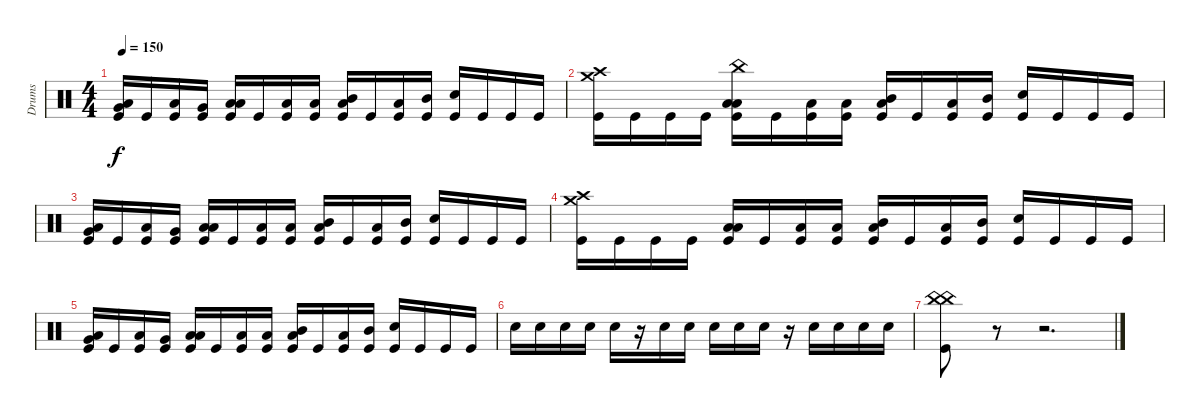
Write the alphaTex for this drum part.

\track ("Drums" "Drums") {instrument percussion}
\staff {score}
\articulation defaults
\ts (4 4)
\tempo 150
\clef neutral
\ks c
("Low Floor Tom (hit)" "Very Low Tom (hit)" "Kick (hit)").16{dy f} "Kick (hit)".16 ("Low Floor Tom (hit)" "Kick (hit)").16 ("Very Low Tom (hit)" "Kick (hit)").16 ("Low Floor Tom (hit)" "Low Tom (hit)" "Kick (hit)").16 "Kick (hit)".16 ("Low Floor Tom (hit)" "Kick (hit)").16 ("Low Tom (hit)" "Kick (hit)").16 ("Low Tom (hit)" "Mid Tom (hit)" "Kick (hit)").16 "Kick (hit)".16 ("Low Tom (hit)" "Kick (hit)").16 ("Mid Tom (hit)" "Kick (hit)").16 ("Snare (hit) 2" "Kick (hit)").16 "Kick (hit)".16 "Kick (hit)".16 "Kick (hit)".16 |
("Crash medium (hit)" "Crash high (hit)" "Kick (hit)").16 "Kick (hit)".16 "Kick (hit)".16 "Kick (hit)".16 ("China (hit)" "Low Floor Tom (hit)" "Low Tom (hit)" "Kick (hit)").16 "Kick (hit)".16 ("Low Floor Tom (hit)" "Kick (hit)").16 ("Low Tom (hit)" "Kick (hit)").16 ("Low Tom (hit)" "Mid Tom (hit)" "Kick (hit)").16 "Kick (hit)".16 ("Low Tom (hit)" "Kick (hit)").16 ("Mid Tom (hit)" "Kick (hit)").16 ("Snare (hit) 2" "Kick (hit)").16 "Kick (hit)".16 "Kick (hit)".16 "Kick (hit)".16 |
("Low Floor Tom (hit)" "Very Low Tom (hit)" "Kick (hit)").16 "Kick (hit)".16 ("Low Floor Tom (hit)" "Kick (hit)").16 ("Very Low Tom (hit)" "Kick (hit)").16 ("Low Floor Tom (hit)" "Low Tom (hit)" "Kick (hit)").16 "Kick (hit)".16 ("Low Floor Tom (hit)" "Kick (hit)").16 ("Low Tom (hit)" "Kick (hit)").16 ("Low Tom (hit)" "Mid Tom (hit)" "Kick (hit)").16 "Kick (hit)".16 ("Low Tom (hit)" "Kick (hit)").16 ("Mid Tom (hit)" "Kick (hit)").16 ("Snare (hit) 2" "Kick (hit)").16 "Kick (hit)".16 "Kick (hit)".16 "Kick (hit)".16 |
("Crash medium (hit)" "Crash high (hit)" "Kick (hit)").16 "Kick (hit)".16 "Kick (hit)".16 "Kick (hit)".16 ("Low Floor Tom (hit)" "Low Tom (hit)" "Kick (hit)").16 "Kick (hit)".16 ("Low Floor Tom (hit)" "Kick (hit)").16 ("Low Tom (hit)" "Kick (hit)").16 ("Low Tom (hit)" "Mid Tom (hit)" "Kick (hit)").16 "Kick (hit)".16 ("Low Tom (hit)" "Kick (hit)").16 ("Mid Tom (hit)" "Kick (hit)").16 ("Snare (hit) 2" "Kick (hit)").16 "Kick (hit)".16 "Kick (hit)".16 "Kick (hit)".16 |
("Low Floor Tom (hit)" "Very Low Tom (hit)" "Kick (hit)").16 "Kick (hit)".16 ("Low Floor Tom (hit)" "Kick (hit)").16 ("Very Low Tom (hit)" "Kick (hit)").16 ("Low Floor Tom (hit)" "Low Tom (hit)" "Kick (hit)").16 "Kick (hit)".16 ("Low Floor Tom (hit)" "Kick (hit)").16 ("Low Tom (hit)" "Kick (hit)").16 ("Low Tom (hit)" "Mid Tom (hit)" "Kick (hit)").16 "Kick (hit)".16 ("Low Tom (hit)" "Kick (hit)").16 ("Mid Tom (hit)" "Kick (hit)").16 ("Snare (hit) 2" "Kick (hit)").16 "Kick (hit)".16 "Kick (hit)".16 "Kick (hit)".16 |
"Snare (hit) 2".16 "Snare (hit) 2".16 "Snare (hit) 2".16 "Snare (hit) 2".16 "Snare (hit) 2".16 r.16 "Snare (hit) 2".16 "Snare (hit) 2".16 "Snare (hit) 2".16 "Snare (hit) 2".16 "Snare (hit) 2".16 r.16 "Snare (hit) 2".16 "Snare (hit) 2".16 "Snare (hit) 2".16 "Snare (hit) 2".16 |
("China (hit)" "China (hit)" "Kick (hit)").8 r.8 r.2{d}
